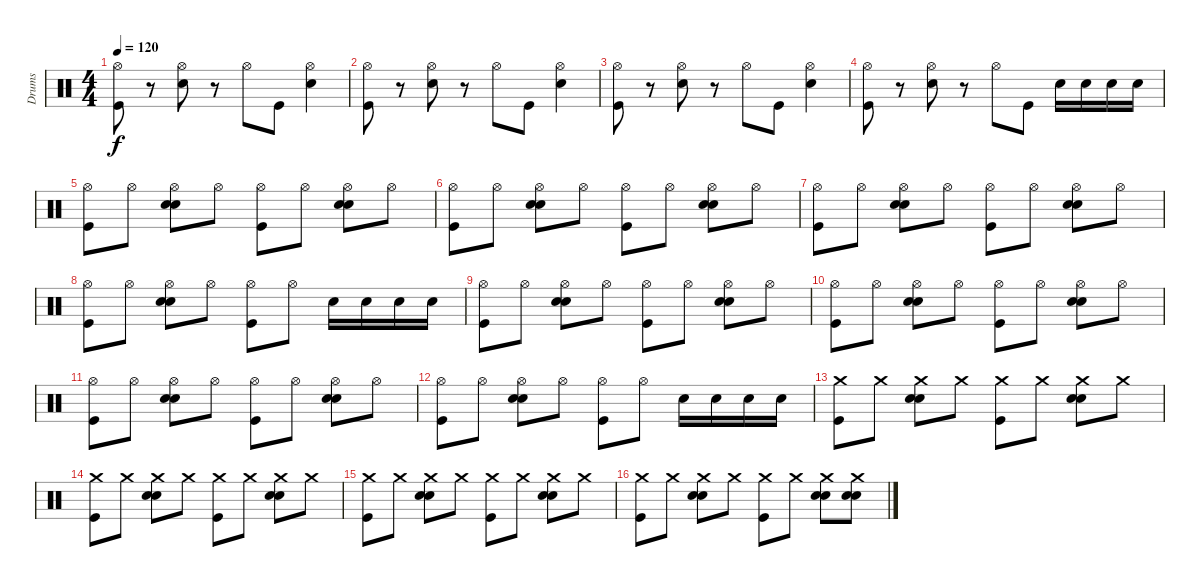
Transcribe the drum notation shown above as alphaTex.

\track ("Drums" "Drums") {instrument percussion}
\staff {score}
\articulation defaults
\ts (4 4)
\tempo 120
\clef neutral
\ks c
("Hi-Hat (open)" "Kick (hit)").8{dy f} r.8 ("Hi-Hat (open)" "Snare (hit) 2").8 r.8 "Hi-Hat (open)".8 "Kick (hit)".8 ("Hi-Hat (open)" "Snare (hit) 2").4 |
("Hi-Hat (open)" "Kick (hit)").8 r.8 ("Hi-Hat (open)" "Snare (hit) 2").8 r.8 "Hi-Hat (open)".8 "Kick (hit)".8 ("Hi-Hat (open)" "Snare (hit) 2").4 |
("Hi-Hat (open)" "Kick (hit)").8 r.8 ("Hi-Hat (open)" "Snare (hit) 2").8 r.8 "Hi-Hat (open)".8 "Kick (hit)".8 ("Hi-Hat (open)" "Snare (hit) 2").4 |
("Hi-Hat (open)" "Kick (hit)").8 r.8 ("Hi-Hat (open)" "Snare (hit) 2").8 r.8 "Hi-Hat (open)".8 "Kick (hit)".8 "Snare (hit) 2".16 "Snare (hit) 2".16 "Snare (hit) 2".16 "Snare (hit) 2".16 |
("Hi-Hat (open)" "Kick (hit)").8 "Hi-Hat (open)".8 ("Hi-Hat (open)" "Electric Snare (hit)" "Snare (hit) 2").8 "Hi-Hat (open)".8 ("Hi-Hat (open)" "Kick (hit)").8 "Hi-Hat (open)".8 ("Hi-Hat (open)" "Electric Snare (hit)" "Snare (hit) 2").8 "Hi-Hat (open)".8 |
("Hi-Hat (open)" "Kick (hit)").8 "Hi-Hat (open)".8 ("Hi-Hat (open)" "Electric Snare (hit)" "Snare (hit) 2").8 "Hi-Hat (open)".8 ("Hi-Hat (open)" "Kick (hit)").8 "Hi-Hat (open)".8 ("Hi-Hat (open)" "Electric Snare (hit)" "Snare (hit) 2").8 "Hi-Hat (open)".8 |
("Hi-Hat (open)" "Kick (hit)").8 "Hi-Hat (open)".8 ("Hi-Hat (open)" "Electric Snare (hit)" "Snare (hit) 2").8 "Hi-Hat (open)".8 ("Hi-Hat (open)" "Kick (hit)").8 "Hi-Hat (open)".8 ("Hi-Hat (open)" "Electric Snare (hit)" "Snare (hit) 2").8 "Hi-Hat (open)".8 |
("Hi-Hat (open)" "Kick (hit)").8 "Hi-Hat (open)".8 ("Hi-Hat (open)" "Electric Snare (hit)" "Snare (hit) 2").8 "Hi-Hat (open)".8 ("Hi-Hat (open)" "Kick (hit)").8 "Hi-Hat (open)".8 "Snare (hit) 2".16 "Snare (hit) 2".16 "Snare (hit) 2".16 "Snare (hit) 2".16 |
("Hi-Hat (open)" "Kick (hit)").8 "Hi-Hat (open)".8 ("Hi-Hat (open)" "Electric Snare (hit)" "Snare (hit) 2").8 "Hi-Hat (open)".8 ("Hi-Hat (open)" "Kick (hit)").8 "Hi-Hat (open)".8 ("Hi-Hat (open)" "Electric Snare (hit)" "Snare (hit) 2").8 "Hi-Hat (open)".8 |
("Hi-Hat (open)" "Kick (hit)").8 "Hi-Hat (open)".8 ("Hi-Hat (open)" "Electric Snare (hit)" "Snare (hit) 2").8 "Hi-Hat (open)".8 ("Hi-Hat (open)" "Kick (hit)").8 "Hi-Hat (open)".8 ("Hi-Hat (open)" "Electric Snare (hit)" "Snare (hit) 2").8 "Hi-Hat (open)".8 |
("Hi-Hat (open)" "Kick (hit)").8 "Hi-Hat (open)".8 ("Hi-Hat (open)" "Electric Snare (hit)" "Snare (hit) 2").8 "Hi-Hat (open)".8 ("Hi-Hat (open)" "Kick (hit)").8 "Hi-Hat (open)".8 ("Hi-Hat (open)" "Electric Snare (hit)" "Snare (hit) 2").8 "Hi-Hat (open)".8 |
("Hi-Hat (open)" "Kick (hit)").8 "Hi-Hat (open)".8 ("Hi-Hat (open)" "Electric Snare (hit)" "Snare (hit) 2").8 "Hi-Hat (open)".8 ("Hi-Hat (open)" "Kick (hit)").8 "Hi-Hat (open)".8 "Snare (hit) 2".16 "Snare (hit) 2".16 "Snare (hit) 2".16 "Snare (hit) 2".16 |
("Crash medium (hit)" "Kick (hit)").8 "Crash medium (hit)".8 ("Crash medium (hit)" "Electric Snare (hit)" "Snare (hit) 2").8 "Crash medium (hit)".8 ("Crash medium (hit)" "Kick (hit)").8 "Crash medium (hit)".8 ("Crash medium (hit)" "Electric Snare (hit)" "Snare (hit) 2").8 "Crash medium (hit)".8 |
("Crash medium (hit)" "Kick (hit)").8 "Crash medium (hit)".8 ("Crash medium (hit)" "Electric Snare (hit)" "Snare (hit) 2").8 "Crash medium (hit)".8 ("Crash medium (hit)" "Kick (hit)").8 "Crash medium (hit)".8 ("Crash medium (hit)" "Electric Snare (hit)" "Snare (hit) 2").8 "Crash medium (hit)".8 |
("Crash medium (hit)" "Kick (hit)").8 "Crash medium (hit)".8 ("Crash medium (hit)" "Electric Snare (hit)" "Snare (hit) 2").8 "Crash medium (hit)".8 ("Crash medium (hit)" "Kick (hit)").8 "Crash medium (hit)".8 ("Crash medium (hit)" "Electric Snare (hit)" "Snare (hit) 2").8 "Crash medium (hit)".8 |
("Crash medium (hit)" "Kick (hit)").8 "Crash medium (hit)".8 ("Crash medium (hit)" "Electric Snare (hit)" "Snare (hit) 2").8 "Crash medium (hit)".8 ("Crash medium (hit)" "Kick (hit)").8 "Crash medium (hit)".8 ("Crash medium (hit)" "Electric Snare (hit)" "Snare (hit) 2").8 ("Crash medium (hit)" "Electric Snare (hit)" "Snare (hit) 2").8
